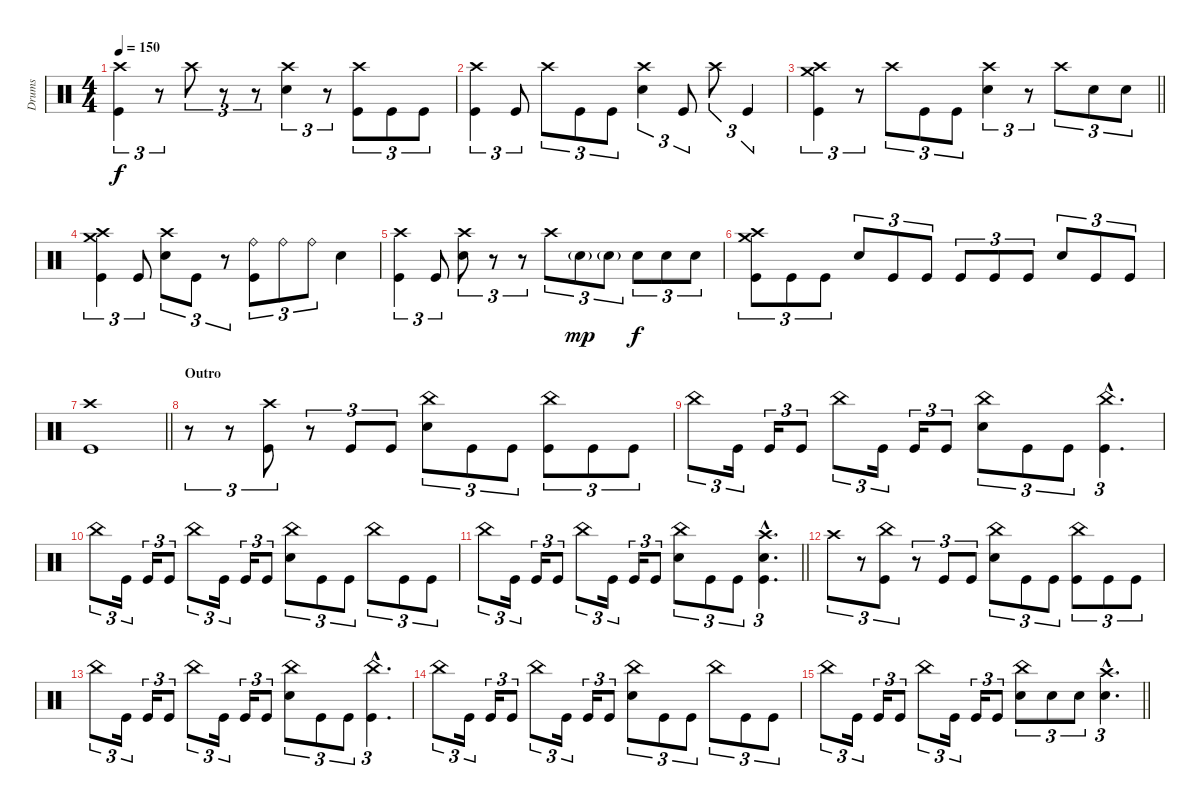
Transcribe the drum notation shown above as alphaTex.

\track ("Drums" "Drums") {instrument percussion}
\staff {score}
\articulation defaults
\ts (4 4)
\tempo 150
\clef neutral
\ks c
("Crash high (hit)" "Kick (hit)").4{tu (3 2) dy f} r.8{tu (3 2)} "Crash high (hit)".8{tu (3 2)} r.8{tu (3 2)} r.8{tu (3 2)} ("Crash high (hit)" "Electric Snare (hit)").4{tu (3 2)} r.8{tu (3 2)} ("Crash high (hit)" "Kick (hit)").8{tu (3 2)} "Kick (hit)".8{tu (3 2)} "Kick (hit)".8{tu (3 2)} |
("Crash high (hit)" "Kick (hit)").4{tu (3 2)} "Kick (hit)".8{tu (3 2)} "Crash high (hit)".8{tu (3 2)} "Kick (hit)".8{tu (3 2)} "Kick (hit)".8{tu (3 2)} ("Crash high (hit)" "Electric Snare (hit)").4{tu (3 2)} "Kick (hit)".8{tu (3 2)} "Crash high (hit)".8{tu (3 2)} "Kick (hit)".4{tu (3 2)} |
\barLineRight lightlight
("Crash high (hit)" "Crash medium (hit)" "Kick (hit)").4{tu (3 2)} r.8{tu (3 2)} "Crash high (hit)".8{tu (3 2)} "Kick (hit)".8{tu (3 2)} "Kick (hit)".8{tu (3 2)} ("Crash high (hit)" "Electric Snare (hit)").4{tu (3 2)} r.8{tu (3 2)} "Crash high (hit)".8{tu (3 2)} "Electric Snare (hit)".8{tu (3 2)} "Electric Snare (hit)".8{tu (3 2)} |
("Crash high (hit)" "Crash medium (hit)" "Kick (hit)").4{tu (3 2)} "Kick (hit)".8{tu (3 2)} ("Crash high (hit)" "Electric Snare (hit)").8{tu (3 2)} "Kick (hit)".8{tu (3 2)} r.8{tu (3 2)} ("Ride (bell)" "Kick (hit)").8{tu (3 2)} "Ride (bell)".8{tu (3 2)} "Ride (bell)".8{tu (3 2)} "Electric Snare (hit)".4 |
("Crash high (hit)" "Kick (hit)").4{tu (3 2)} "Kick (hit)".8{tu (3 2)} ("Crash high (hit)" "Electric Snare (hit)").8{tu (3 2)} r.8{tu (3 2)} r.8{tu (3 2)} "Crash high (hit)".8{tu (3 2)} "Electric Snare (hit)"{g}.8{tu (3 2) dy mp} "Electric Snare (hit)"{g}.8{tu (3 2)} "Electric Snare (hit)".8{tu (3 2) dy f} "Electric Snare (hit)".8{tu (3 2)} "Electric Snare (hit)".8{tu (3 2)} |
("Crash high (hit)" "Crash medium (hit)" "Kick (hit)").8{tu (3 2)} "Kick (hit)".8{tu (3 2)} "Kick (hit)".8{tu (3 2)} "Electric Snare (hit)".8{tu (3 2)} "Kick (hit)".8{tu (3 2)} "Kick (hit)".8{tu (3 2)} "Kick (hit)".8{tu (3 2)} "Kick (hit)".8{tu (3 2)} "Kick (hit)".8{tu (3 2)} "Electric Snare (hit)".8{tu (3 2)} "Kick (hit)".8{tu (3 2)} "Kick (hit)".8{tu (3 2)} |
\barLineRight lightlight
("Crash high (hit)" "Kick (hit)").1 |
\section ("" "Outro")
r.8{tu (3 2)} r.8{tu (3 2)} ("Crash high (hit)" "Kick (hit)").8{tu (3 2)} r.8{tu (3 2)} "Kick (hit)".8{tu (3 2)} "Kick (hit)".8{tu (3 2)} ("China (hit)" "Electric Snare (hit)").8{tu (3 2)} "Kick (hit)".8{tu (3 2)} "Kick (hit)".8{tu (3 2)} ("China (hit)" "Kick (hit)").8{tu (3 2)} "Kick (hit)".8{tu (3 2)} "Kick (hit)".8{tu (3 2)} |
"China (hit)".8{tu (3 2)} "Kick (hit)".16{tu (3 2)} "Kick (hit)".16{tu (3 2)} "Kick (hit)".8{tu (3 2)} "China (hit)".8{tu (3 2)} "Kick (hit)".16{tu (3 2)} "Kick (hit)".16{tu (3 2)} "Kick (hit)".8{tu (3 2)} ("China (hit)" "Electric Snare (hit)").8{tu (3 2)} "Kick (hit)".8{tu (3 2)} "Kick (hit)".8{tu (3 2)} ("China (hit)"{hac} "Kick (hit)"{hac}).4{d tu (3 2)} |
"China (hit)".8{tu (3 2)} "Kick (hit)".16{tu (3 2)} "Kick (hit)".16{tu (3 2)} "Kick (hit)".8{tu (3 2)} "China (hit)".8{tu (3 2)} "Kick (hit)".16{tu (3 2)} "Kick (hit)".16{tu (3 2)} "Kick (hit)".8{tu (3 2)} ("China (hit)" "Electric Snare (hit)").8{tu (3 2)} "Kick (hit)".8{tu (3 2)} "Kick (hit)".8{tu (3 2)} "China (hit)".8{tu (3 2)} "Kick (hit)".8{tu (3 2)} "Kick (hit)".8{tu (3 2)} |
\barLineRight lightlight "China (hit)".8{tu (3 2)} "Kick (hit)".16{tu (3 2)} "Kick (hit)".16{tu (3 2)} "Kick (hit)".8{tu (3 2)} "China (hit)".8{tu (3 2)} "Kick (hit)".16{tu (3 2)} "Kick (hit)".16{tu (3 2)} "Kick (hit)".8{tu (3 2)}
("China (hit)" "Electric Snare (hit)").8{tu (3 2)} "Kick (hit)".8{tu (3 2)} "Kick (hit)".8{tu (3 2)} ("Crash high (hit)"{hac} "Electric Snare (hit)"{hac} "Kick (hit)"{hac}).4{d tu (3 2)} |
"Crash high (hit)".8{tu (3 2)} r.8{tu (3 2)} ("China (hit)" "Kick (hit)").8{tu (3 2)} r.8{tu (3 2)} "Kick (hit)".8{tu (3 2)} "Kick (hit)".8{tu (3 2)} ("China (hit)" "Electric Snare (hit)").8{tu (3 2)} "Kick (hit)".8{tu (3 2)} "Kick (hit)".8{tu (3 2)} ("China (hit)" "Kick (hit)").8{tu (3 2)} "Kick (hit)".8{tu (3 2)} "Kick (hit)".8{tu (3 2)} |
"China (hit)".8{tu (3 2)} "Kick (hit)".16{tu (3 2)} "Kick (hit)".16{tu (3 2)} "Kick (hit)".8{tu (3 2)} "China (hit)".8{tu (3 2)} "Kick (hit)".16{tu (3 2)} "Kick (hit)".16{tu (3 2)} "Kick (hit)".8{tu (3 2)} ("China (hit)" "Electric Snare (hit)").8{tu (3 2)} "Kick (hit)".8{tu (3 2)} "Kick (hit)".8{tu (3 2)} ("China (hit)"{hac} "Kick (hit)"{hac}).4{d tu (3 2)} |
"China (hit)".8{tu (3 2)} "Kick (hit)".16{tu (3 2)} "Kick (hit)".16{tu (3 2)} "Kick (hit)".8{tu (3 2)} "China (hit)".8{tu (3 2)} "Kick (hit)".16{tu (3 2)} "Kick (hit)".16{tu (3 2)} "Kick (hit)".8{tu (3 2)} ("China (hit)" "Electric Snare (hit)").8{tu (3 2)} "Kick (hit)".8{tu (3 2)} "Kick (hit)".8{tu (3 2)} "China (hit)".8{tu (3 2)} "Kick (hit)".8{tu (3 2)} "Kick (hit)".8{tu (3 2)} |
\barLineRight lightlight "China (hit)".8{tu (3 2)} "Kick (hit)".16{tu (3 2)} "Kick (hit)".16{tu (3 2)} "Kick (hit)".8{tu (3 2)} "China (hit)".8{tu (3 2)} "Kick (hit)".16{tu (3 2)} "Kick (hit)".16{tu (3 2)} "Kick (hit)".8{tu (3 2)}
("China (hit)" "Electric Snare (hit)").8{tu (3 2)} "Electric Snare (hit)".8{tu (3 2)} "Electric Snare (hit)".8{tu (3 2)} ("Crash high (hit)"{hac} "Electric Snare (hit)"{hac}).4{d tu (3 2)}
